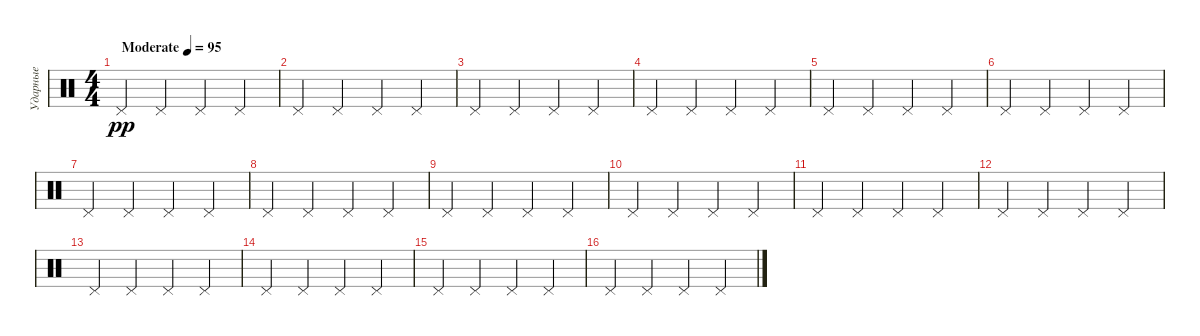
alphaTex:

\track ("Ударные" "Ударные") {instrument percussion}
\staff {score}
\articulation defaults
\ts (4 4)
\tempo (95 "Moderate")
\clef neutral
\ks c "Pedal Hi-Hat (hit)".4{dy pp} "Pedal Hi-Hat (hit)".4 "Pedal Hi-Hat (hit)".4 "Pedal Hi-Hat (hit)".4
|
"Pedal Hi-Hat (hit)".4 "Pedal Hi-Hat (hit)".4 "Pedal Hi-Hat (hit)".4 "Pedal Hi-Hat (hit)".4 |
"Pedal Hi-Hat (hit)".4 "Pedal Hi-Hat (hit)".4 "Pedal Hi-Hat (hit)".4 "Pedal Hi-Hat (hit)".4 |
"Pedal Hi-Hat (hit)".4 "Pedal Hi-Hat (hit)".4 "Pedal Hi-Hat (hit)".4 "Pedal Hi-Hat (hit)".4 |
"Pedal Hi-Hat (hit)".4 "Pedal Hi-Hat (hit)".4 "Pedal Hi-Hat (hit)".4 "Pedal Hi-Hat (hit)".4 |
"Pedal Hi-Hat (hit)".4 "Pedal Hi-Hat (hit)".4 "Pedal Hi-Hat (hit)".4 "Pedal Hi-Hat (hit)".4 |
"Pedal Hi-Hat (hit)".4 "Pedal Hi-Hat (hit)".4 "Pedal Hi-Hat (hit)".4 "Pedal Hi-Hat (hit)".4 |
"Pedal Hi-Hat (hit)".4 "Pedal Hi-Hat (hit)".4 "Pedal Hi-Hat (hit)".4 "Pedal Hi-Hat (hit)".4 |
"Pedal Hi-Hat (hit)".4 "Pedal Hi-Hat (hit)".4 "Pedal Hi-Hat (hit)".4 "Pedal Hi-Hat (hit)".4 |
"Pedal Hi-Hat (hit)".4 "Pedal Hi-Hat (hit)".4 "Pedal Hi-Hat (hit)".4 "Pedal Hi-Hat (hit)".4 |
"Pedal Hi-Hat (hit)".4 "Pedal Hi-Hat (hit)".4 "Pedal Hi-Hat (hit)".4 "Pedal Hi-Hat (hit)".4 |
"Pedal Hi-Hat (hit)".4 "Pedal Hi-Hat (hit)".4 "Pedal Hi-Hat (hit)".4 "Pedal Hi-Hat (hit)".4 |
"Pedal Hi-Hat (hit)".4 "Pedal Hi-Hat (hit)".4 "Pedal Hi-Hat (hit)".4 "Pedal Hi-Hat (hit)".4 |
"Pedal Hi-Hat (hit)".4 "Pedal Hi-Hat (hit)".4 "Pedal Hi-Hat (hit)".4 "Pedal Hi-Hat (hit)".4 |
"Pedal Hi-Hat (hit)".4 "Pedal Hi-Hat (hit)".4 "Pedal Hi-Hat (hit)".4 "Pedal Hi-Hat (hit)".4 |
"Pedal Hi-Hat (hit)".4 "Pedal Hi-Hat (hit)".4 "Pedal Hi-Hat (hit)".4 "Pedal Hi-Hat (hit)".4
